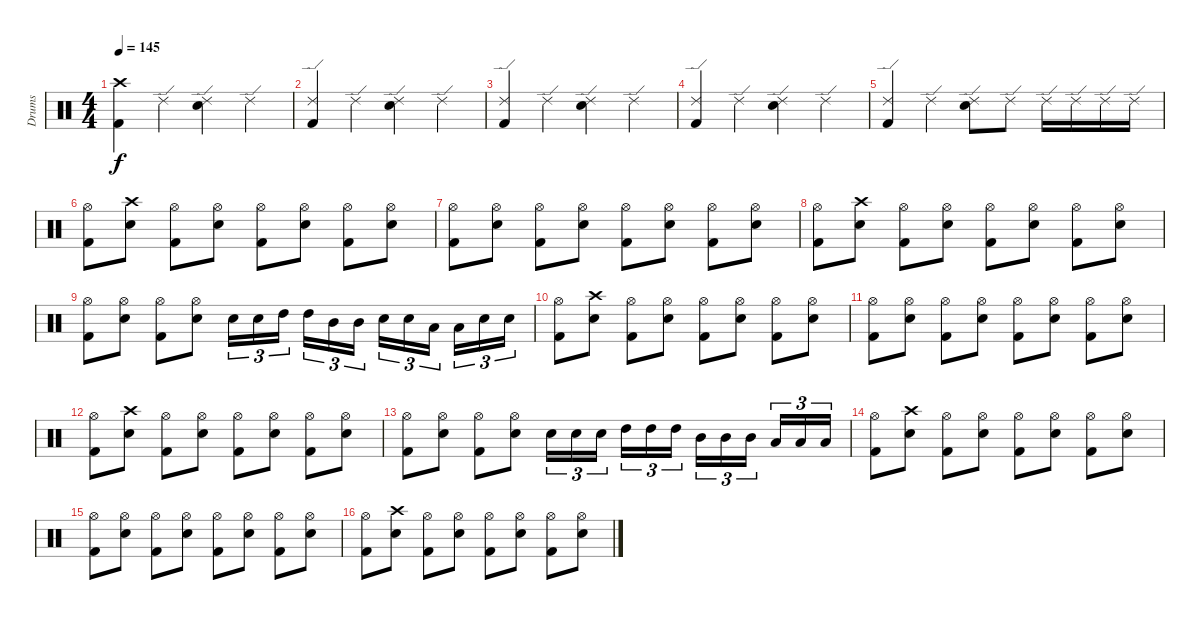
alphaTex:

\track ("Drums" "Drums") {instrument percussion}
\staff {score}
\articulation defaults
\ts (4 4)
\tempo 145
\clef neutral
\ks c
("Crash high (hit)" "Kick (hit) 2").4{dy f} "Ride (edge) 2".4 ("Ride (edge) 2" "Snare (hit) 2").4 "Ride (edge) 2".4 |
("Ride (edge) 2" "Kick (hit) 2").4 "Ride (edge) 2".4 ("Ride (edge) 2" "Snare (hit) 2").4 "Ride (edge) 2".4 |
("Ride (edge) 2" "Kick (hit) 2").4 "Ride (edge) 2".4 ("Ride (edge) 2" "Snare (hit) 2").4 "Ride (edge) 2".4 |
("Ride (edge) 2" "Kick (hit) 2").4 "Ride (edge) 2".4 ("Ride (edge) 2" "Snare (hit) 2").4 "Ride (edge) 2".4 |
("Ride (edge) 2" "Kick (hit) 2").4 "Ride (edge) 2".4 ("Ride (edge) 2" "Snare (hit) 2").8 "Ride (edge) 2".8 "Ride (edge) 2".16 "Ride (edge) 2".16 "Ride (edge) 2".16 "Ride (edge) 2".16 |
("Hi-Hat (open)" "Kick (hit) 2").8 ("Crash high (hit)" "Snare (hit) 2").8 ("Hi-Hat (open)" "Kick (hit) 2").8 ("Hi-Hat (open)" "Snare (hit) 2").8 ("Hi-Hat (open)" "Kick (hit) 2").8 ("Hi-Hat (open)" "Snare (hit) 2").8 ("Hi-Hat (open)" "Kick (hit) 2").8 ("Hi-Hat (open)" "Snare (hit) 2").8 |
("Hi-Hat (open)" "Kick (hit) 2").8 ("Hi-Hat (open)" "Snare (hit) 2").8 ("Hi-Hat (open)" "Kick (hit) 2").8 ("Hi-Hat (open)" "Snare (hit) 2").8 ("Hi-Hat (open)" "Kick (hit) 2").8 ("Hi-Hat (open)" "Snare (hit) 2").8 ("Hi-Hat (open)" "Kick (hit) 2").8 ("Hi-Hat (open)" "Snare (hit) 2").8 |
("Hi-Hat (open)" "Kick (hit) 2").8 ("Crash high (hit)" "Snare (hit) 2").8 ("Hi-Hat (open)" "Kick (hit) 2").8 ("Hi-Hat (open)" "Snare (hit) 2").8 ("Hi-Hat (open)" "Kick (hit) 2").8 ("Hi-Hat (open)" "Snare (hit) 2").8 ("Hi-Hat (open)" "Kick (hit) 2").8 ("Hi-Hat (open)" "Snare (hit) 2").8 |
("Hi-Hat (open)" "Kick (hit) 2").8 ("Hi-Hat (open)" "Snare (hit) 2").8 ("Hi-Hat (open)" "Kick (hit) 2").8 ("Hi-Hat (open)" "Snare (hit) 2").8 "Snare (hit) 2".16{tu (3 2)} "Snare (hit) 2".16{tu (3 2)} "High Tom (hit)".16{tu (3 2)} "High Tom (hit)".16{tu (3 2)} "Mid Tom (hit)".16{tu (3 2)} "Mid Tom (hit)".16{tu (3 2)} "Snare (hit) 2".16{tu (3 2)} "Snare (hit) 2".16{tu (3 2)} "Low Tom (hit)".16{tu (3 2)} "Low Tom (hit)".16{tu (3 2)} "Snare (hit) 2".16{tu (3 2)} "Snare (hit) 2".16{tu (3 2)} |
("Hi-Hat (open)" "Kick (hit) 2").8 ("Crash high (hit)" "Snare (hit) 2").8 ("Hi-Hat (open)" "Kick (hit) 2").8 ("Hi-Hat (open)" "Snare (hit) 2").8 ("Hi-Hat (open)" "Kick (hit) 2").8 ("Hi-Hat (open)" "Snare (hit) 2").8 ("Hi-Hat (open)" "Kick (hit) 2").8 ("Hi-Hat (open)" "Snare (hit) 2").8 |
("Hi-Hat (open)" "Kick (hit) 2").8 ("Hi-Hat (open)" "Snare (hit) 2").8 ("Hi-Hat (open)" "Kick (hit) 2").8 ("Hi-Hat (open)" "Snare (hit) 2").8 ("Hi-Hat (open)" "Kick (hit) 2").8 ("Hi-Hat (open)" "Snare (hit) 2").8 ("Hi-Hat (open)" "Kick (hit) 2").8 ("Hi-Hat (open)" "Snare (hit) 2").8 |
("Hi-Hat (open)" "Kick (hit) 2").8 ("Crash high (hit)" "Snare (hit) 2").8 ("Hi-Hat (open)" "Kick (hit) 2").8 ("Hi-Hat (open)" "Snare (hit) 2").8 ("Hi-Hat (open)" "Kick (hit) 2").8 ("Hi-Hat (open)" "Snare (hit) 2").8 ("Hi-Hat (open)" "Kick (hit) 2").8 ("Hi-Hat (open)" "Snare (hit) 2").8 |
("Hi-Hat (open)" "Kick (hit) 2").8 ("Hi-Hat (open)" "Snare (hit) 2").8 ("Hi-Hat (open)" "Kick (hit) 2").8 ("Hi-Hat (open)" "Snare (hit) 2").8 "Snare (hit) 2".16{tu (3 2)} "Snare (hit) 2".16{tu (3 2)} "Snare (hit) 2".16{tu (3 2)} "High Tom (hit)".16{tu (3 2)} "High Tom (hit)".16{tu (3 2)} "High Tom (hit)".16{tu (3 2)} "Mid Tom (hit)".16{tu (3 2)} "Mid Tom (hit)".16{tu (3 2)} "Mid Tom (hit)".16{tu (3 2)} "Low Tom (hit)".16{tu (3 2)} "Low Tom (hit)".16{tu (3 2)} "Low Tom (hit)".16{tu (3 2)} |
("Hi-Hat (open)" "Kick (hit) 2").8 ("Crash high (hit)" "Snare (hit) 2").8 ("Hi-Hat (open)" "Kick (hit) 2").8 ("Hi-Hat (open)" "Snare (hit) 2").8 ("Hi-Hat (open)" "Kick (hit) 2").8 ("Hi-Hat (open)" "Snare (hit) 2").8 ("Hi-Hat (open)" "Kick (hit) 2").8 ("Hi-Hat (open)" "Snare (hit) 2").8 |
("Hi-Hat (open)" "Kick (hit) 2").8 ("Hi-Hat (open)" "Snare (hit) 2").8 ("Hi-Hat (open)" "Kick (hit) 2").8 ("Hi-Hat (open)" "Snare (hit) 2").8 ("Hi-Hat (open)" "Kick (hit) 2").8 ("Hi-Hat (open)" "Snare (hit) 2").8 ("Hi-Hat (open)" "Kick (hit) 2").8 ("Hi-Hat (open)" "Snare (hit) 2").8 |
("Hi-Hat (open)" "Kick (hit) 2").8 ("Crash high (hit)" "Snare (hit) 2").8 ("Hi-Hat (open)" "Kick (hit) 2").8 ("Hi-Hat (open)" "Snare (hit) 2").8 ("Hi-Hat (open)" "Kick (hit) 2").8 ("Hi-Hat (open)" "Snare (hit) 2").8 ("Hi-Hat (open)" "Kick (hit) 2").8 ("Hi-Hat (open)" "Snare (hit) 2").8
